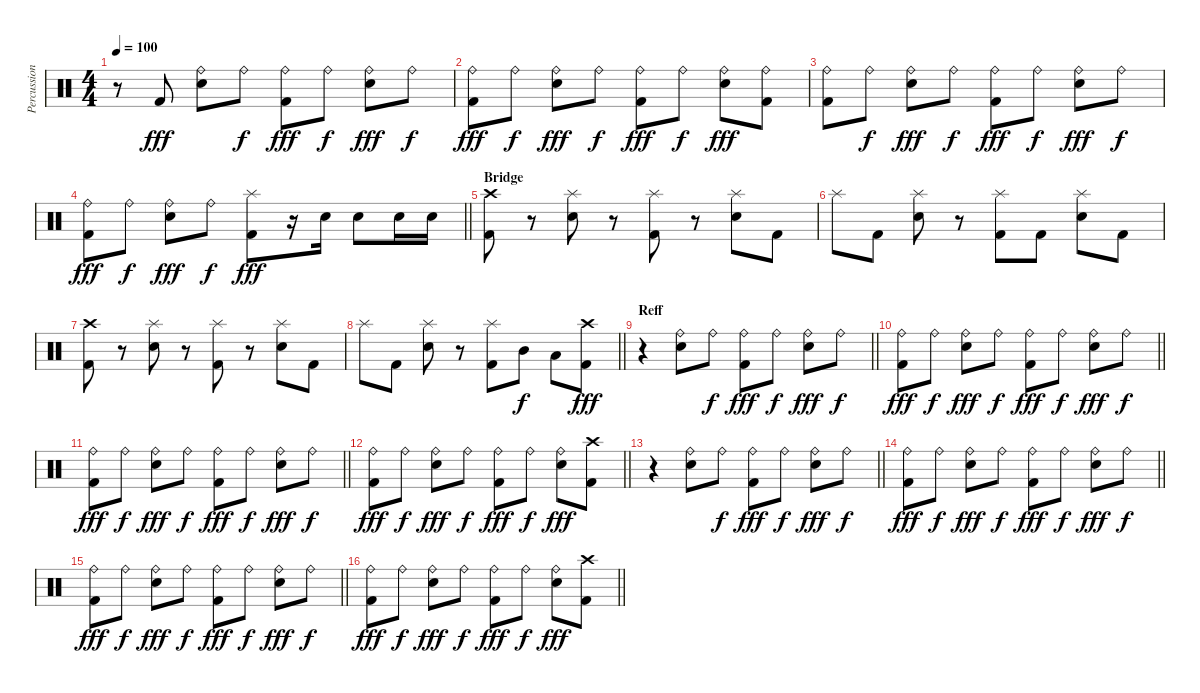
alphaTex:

\track ("Percussion" "Percussion") {instrument percussion}
\staff {score}
\articulation defaults
\ts (4 4)
\tempo 100
\clef neutral
\ks c
r.8{dy fff} "Kick (hit) 2".8 ("Ride (bell)" "Electric Snare (hit)").8 "Ride (bell)".8{dy f} ("Ride (bell)" "Kick (hit) 2").8{dy fff} "Ride (bell)".8{dy f} ("Ride (bell)" "Electric Snare (hit)").8{dy fff} "Ride (bell)".8{dy f} |
("Ride (bell)" "Kick (hit) 2").8{dy fff} "Ride (bell)".8{dy f} ("Ride (bell)" "Electric Snare (hit)").8{dy fff} "Ride (bell)".8{dy f} ("Ride (bell)" "Kick (hit) 2").8{dy fff} "Ride (bell)".8{dy f} ("Ride (bell)" "Electric Snare (hit)").8{dy fff} ("Ride (bell)" "Kick (hit) 2").8 |
("Ride (bell)" "Kick (hit) 2").8 "Ride (bell)".8{dy f} ("Ride (bell)" "Electric Snare (hit)").8{dy fff} "Ride (bell)".8{dy f} ("Ride (bell)" "Kick (hit) 2").8{dy fff} "Ride (bell)".8{dy f} ("Ride (bell)" "Electric Snare (hit)").8{dy fff} "Ride (bell)".8{dy f} |
\barLineRight lightlight
("Ride (bell)" "Kick (hit) 2").8{dy fff} "Ride (bell)".8{dy f} ("Ride (bell)" "Electric Snare (hit)").8{dy fff} "Ride (bell)".8{dy f} ("Splash (hit)" "Kick (hit) 2").8{dy fff} r.16 "Electric Snare (hit)".16 "Electric Snare (hit)".8 "Electric Snare (hit)".16 "Electric Snare (hit)".16 |
\section ("" "Bridge")
("Crash high (hit)" "Kick (hit) 2").8 r.8 ("Splash (hit)" "Electric Snare (hit)").8 r.8 ("Splash (hit)" "Kick (hit) 2").8 r.8 ("Splash (hit)" "Electric Snare (hit)").8 "Kick (hit) 2".8 |
"Splash (hit)".8 "Kick (hit) 2".8 ("Splash (hit)" "Electric Snare (hit)").8 r.8 ("Splash (hit)" "Kick (hit) 2").8 "Kick (hit) 2".8 ("Splash (hit)" "Electric Snare (hit)").8 "Kick (hit) 2".8 |
("Crash high (hit)" "Kick (hit) 2").8 r.8 ("Splash (hit)" "Electric Snare (hit)").8 r.8 ("Splash (hit)" "Kick (hit) 2").8 r.8 ("Splash (hit)" "Electric Snare (hit)").8 "Kick (hit) 2".8 |
\barLineRight lightlight "Splash (hit)".8 "Kick (hit) 2".8
("Splash (hit)" "Electric Snare (hit)").8 r.8 ("Splash (hit)" "Kick (hit) 2").8 "Mid Tom (hit)".8{dy f} "Low Tom (hit)".8 ("Crash high (hit)" "Kick (hit) 2").8{dy fff} |
\section ("" "Reff")
\barLineRight lightlight
r.4 ("Ride (bell)" "Electric Snare (hit)").8 "Ride (bell)".8{dy f} ("Ride (bell)" "Kick (hit) 2").8{dy fff} "Ride (bell)".8{dy f} ("Ride (bell)" "Electric Snare (hit)").8{dy fff} "Ride (bell)".8{dy f} |
\barLineRight lightlight
("Ride (bell)" "Kick (hit) 2").8{dy fff} "Ride (bell)".8{dy f} ("Ride (bell)" "Electric Snare (hit)").8{dy fff} "Ride (bell)".8{dy f} ("Ride (bell)" "Kick (hit) 2").8{dy fff} "Ride (bell)".8{dy f} ("Ride (bell)" "Electric Snare (hit)").8{dy fff} "Ride (bell)".8{dy f} |
\barLineRight lightlight
("Ride (bell)" "Kick (hit) 2").8{dy fff} "Ride (bell)".8{dy f} ("Ride (bell)" "Electric Snare (hit)").8{dy fff} "Ride (bell)".8{dy f} ("Ride (bell)" "Kick (hit) 2").8{dy fff} "Ride (bell)".8{dy f} ("Ride (bell)" "Electric Snare (hit)").8{dy fff} "Ride (bell)".8{dy f} |
\barLineRight lightlight
("Ride (bell)" "Kick (hit) 2").8{dy fff} "Ride (bell)".8{dy f} ("Ride (bell)" "Electric Snare (hit)").8{dy fff} "Ride (bell)".8{dy f} ("Ride (bell)" "Kick (hit) 2").8{dy fff} "Ride (bell)".8{dy f} ("Ride (bell)" "Electric Snare (hit)").8{dy fff} ("Crash high (hit)" "Kick (hit) 2").8 |
\barLineRight lightlight
r.4 ("Ride (bell)" "Electric Snare (hit)").8 "Ride (bell)".8{dy f} ("Ride (bell)" "Kick (hit) 2").8{dy fff} "Ride (bell)".8{dy f} ("Ride (bell)" "Electric Snare (hit)").8{dy fff} "Ride (bell)".8{dy f} |
\barLineRight lightlight
("Ride (bell)" "Kick (hit) 2").8{dy fff} "Ride (bell)".8{dy f} ("Ride (bell)" "Electric Snare (hit)").8{dy fff} "Ride (bell)".8{dy f} ("Ride (bell)" "Kick (hit) 2").8{dy fff} "Ride (bell)".8{dy f} ("Ride (bell)" "Electric Snare (hit)").8{dy fff} "Ride (bell)".8{dy f} |
\barLineRight lightlight
("Ride (bell)" "Kick (hit) 2").8{dy fff} "Ride (bell)".8{dy f} ("Ride (bell)" "Electric Snare (hit)").8{dy fff} "Ride (bell)".8{dy f} ("Ride (bell)" "Kick (hit) 2").8{dy fff} "Ride (bell)".8{dy f} ("Ride (bell)" "Electric Snare (hit)").8{dy fff} "Ride (bell)".8{dy f} |
\barLineRight lightlight
("Ride (bell)" "Kick (hit) 2").8{dy fff} "Ride (bell)".8{dy f} ("Ride (bell)" "Electric Snare (hit)").8{dy fff} "Ride (bell)".8{dy f} ("Ride (bell)" "Kick (hit) 2").8{dy fff} "Ride (bell)".8{dy f} ("Ride (bell)" "Electric Snare (hit)").8{dy fff} ("Crash high (hit)" "Kick (hit) 2").8
